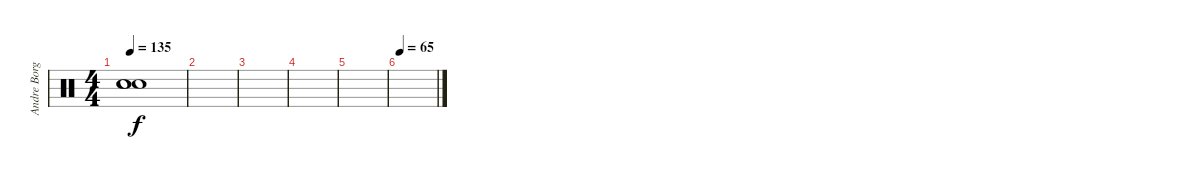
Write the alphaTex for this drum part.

\track ("Andre Borgman" "Andre Borg") {instrument percussion}
\staff {score}
\articulation defaults
\ts (4 4)
\tempo 135
\clef neutral
\ks c
("Snare (hit)"{t} "Snare (hit)"{t} "Snare (hit)"{t}).1{dy f} |
|
|
|
|
\tempo 65
